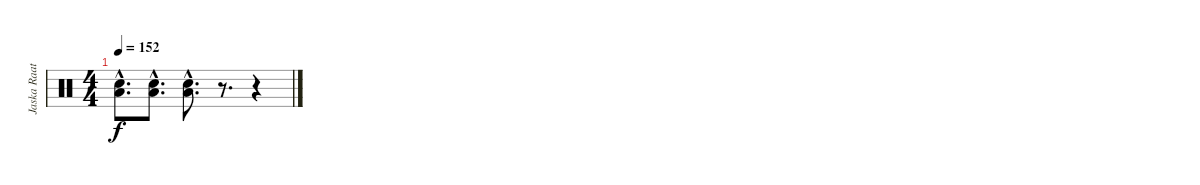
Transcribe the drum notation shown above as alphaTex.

\track ("Jaska Raatikainen" "Jaska Raat") {instrument percussion}
\staff {score}
\articulation defaults
\ts (4 4)
\tempo 152
\clef neutral
\ks c
("Electric Snare (hit)"{hac} "Low Tom (hit)"{hac}).8{d dy f} ("Electric Snare (hit)"{hac} "Low Tom (hit)"{hac}).8{d} ("Electric Snare (hit)"{hac} "Low Tom (hit)"{hac}).8{d} r.8{d} r.4
